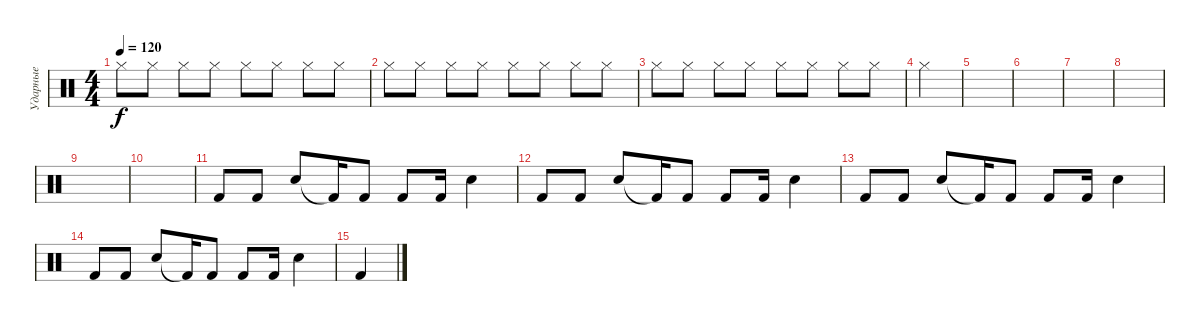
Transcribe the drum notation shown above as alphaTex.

\track ("Ударные" "Ударные") {instrument percussion}
\staff {score}
\articulation defaults
\ts (4 4)
\tempo 120
\clef neutral
\ks c "Hi-Hat (closed)".8{dy f} "Hi-Hat (closed)".8 "Hi-Hat (closed)".8 "Hi-Hat (closed)".8 "Hi-Hat (closed)".8 "Hi-Hat (closed)".8 "Hi-Hat (closed)".8 "Hi-Hat (closed)".8
|
"Hi-Hat (closed)".8 "Hi-Hat (closed)".8 "Hi-Hat (closed)".8 "Hi-Hat (closed)".8 "Hi-Hat (closed)".8 "Hi-Hat (closed)".8 "Hi-Hat (closed)".8 "Hi-Hat (closed)".8 |
"Hi-Hat (closed)".8 "Hi-Hat (closed)".8 "Hi-Hat (closed)".8 "Hi-Hat (closed)".8 "Hi-Hat (closed)".8 "Hi-Hat (closed)".8 "Hi-Hat (closed)".8 "Hi-Hat (closed)".8 |
"Hi-Hat (closed)".4 |
|
|
|
|
|
|
"Kick (hit) 2".8{volume 12} "Kick (hit) 2".8 "Hand Clap (hit)".8 "Kick (hit) 2"{t}.16 "Kick (hit) 2".8 "Kick (hit) 2".8 "Kick (hit) 2".16 "Hand Clap (hit)".4 |
"Kick (hit) 2".8 "Kick (hit) 2".8 "Hand Clap (hit)".8 "Kick (hit) 2"{t}.16 "Kick (hit) 2".8 "Kick (hit) 2".8 "Kick (hit) 2".16 "Hand Clap (hit)".4 |
"Kick (hit) 2".8 "Kick (hit) 2".8 "Hand Clap (hit)".8 "Kick (hit) 2"{t}.16 "Kick (hit) 2".8 "Kick (hit) 2".8 "Kick (hit) 2".16 "Hand Clap (hit)".4 |
"Kick (hit) 2".8 "Kick (hit) 2".8 "Hand Clap (hit)".8 "Kick (hit) 2"{t}.16 "Kick (hit) 2".8 "Kick (hit) 2".8 "Kick (hit) 2".16 "Hand Clap (hit)".4 |
"Kick (hit) 2".4
